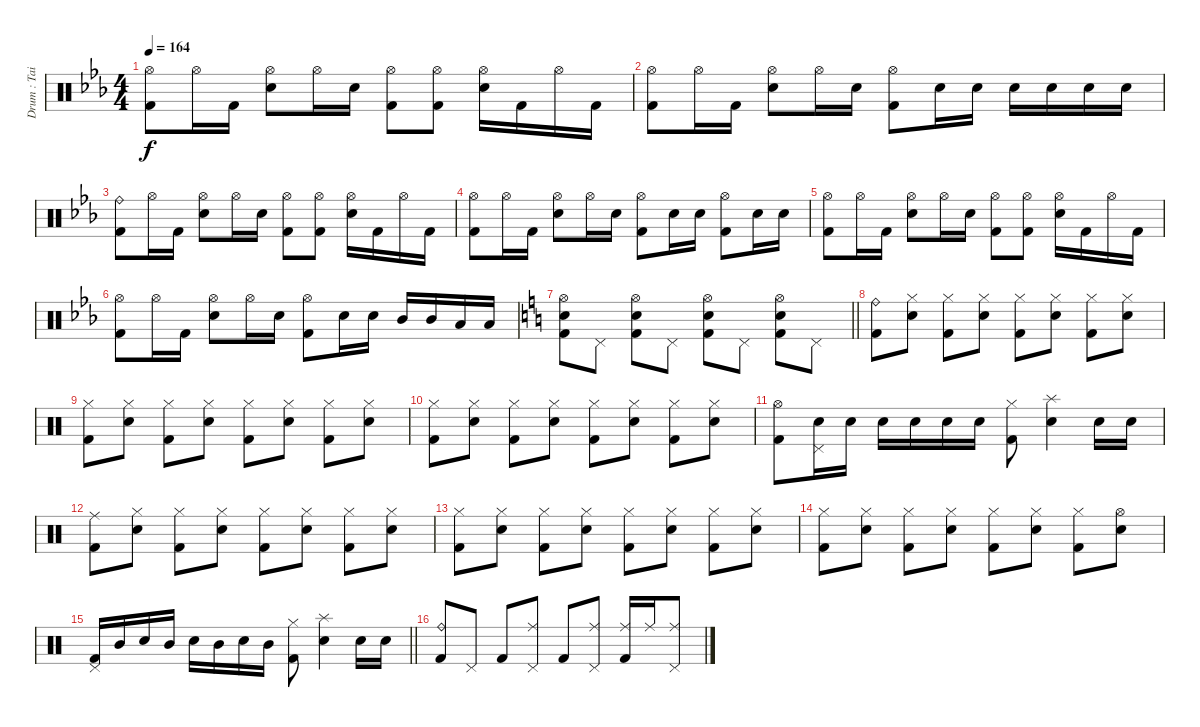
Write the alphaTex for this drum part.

\track ("Drum : Tainaka Ritsu - Chan" "Drum : Tai") {instrument percussion}
\staff {score}
\articulation defaults
\ts (4 4)
\tempo 164
\clef neutral
\ks eb
("Hi-Hat (open)" "Kick (hit) 2").8{dy f} "Hi-Hat (open)".16 "Kick (hit) 2".16 ("Hi-Hat (open)" "Electric Snare (hit)").8 "Hi-Hat (open)".16 "Electric Snare (hit)".16 ("Hi-Hat (open)" "Kick (hit) 2").8 ("Hi-Hat (open)" "Kick (hit) 2").8 ("Hi-Hat (open)" "Electric Snare (hit)").16 "Kick (hit) 2".16 "Hi-Hat (open)".16 "Kick (hit) 2".16 |
("Hi-Hat (open)" "Kick (hit) 2").8 "Hi-Hat (open)".16 "Kick (hit) 2".16 ("Hi-Hat (open)" "Electric Snare (hit)").8 "Hi-Hat (open)".16 "Electric Snare (hit)".16 ("Hi-Hat (open)" "Kick (hit) 2").8 "Electric Snare (hit)".16 "Electric Snare (hit)".16 "Electric Snare (hit)".16 "Electric Snare (hit)".16 "Electric Snare (hit)".16 "Electric Snare (hit)".16 |
("Ride (bell)" "Kick (hit) 2").8 "Hi-Hat (open)".16 "Kick (hit) 2".16 ("Hi-Hat (open)" "Electric Snare (hit)").8 "Hi-Hat (open)".16 "Electric Snare (hit)".16 ("Hi-Hat (open)" "Kick (hit) 2").8 ("Hi-Hat (open)" "Kick (hit) 2").8 ("Hi-Hat (open)" "Electric Snare (hit)").16 "Kick (hit) 2".16 "Hi-Hat (open)".16 "Kick (hit) 2".16 |
("Hi-Hat (open)" "Kick (hit) 2").8 "Hi-Hat (open)".16 "Kick (hit) 2".16 ("Hi-Hat (open)" "Electric Snare (hit)").8 "Hi-Hat (open)".16 "Electric Snare (hit)".16 ("Hi-Hat (open)" "Kick (hit) 2").8 "Electric Snare (hit)".16 "Electric Snare (hit)".16 ("Hi-Hat (open)" "Kick (hit) 2").8 "Electric Snare (hit)".16 "Electric Snare (hit)".16 |
("Hi-Hat (open)" "Kick (hit) 2").8 "Hi-Hat (open)".16 "Kick (hit) 2".16 ("Hi-Hat (open)" "Electric Snare (hit)").8 "Hi-Hat (open)".16 "Electric Snare (hit)".16 ("Hi-Hat (open)" "Kick (hit) 2").8 ("Hi-Hat (open)" "Kick (hit) 2").8 ("Hi-Hat (open)" "Electric Snare (hit)").16 "Kick (hit) 2".16 "Hi-Hat (open)".16 "Kick (hit) 2".16 |
("Hi-Hat (open)" "Kick (hit) 2").8 "Hi-Hat (open)".16 "Kick (hit) 2".16 ("Hi-Hat (open)" "Electric Snare (hit)").8 "Hi-Hat (open)".16 "Electric Snare (hit)".16 ("Hi-Hat (open)" "Kick (hit) 2").8 "Electric Snare (hit)".16 "Electric Snare (hit)".16 "Mid Tom (hit)".16 "Mid Tom (hit)".16 "Low Tom (hit)".16 "Low Tom (hit)".16 |
\barLineRight lightlight
\ks c
("Hi-Hat (open)" "Electric Snare (hit)" "Kick (hit) 2").8 "Pedal Hi-Hat (hit)".8 ("Hi-Hat (open)" "Electric Snare (hit)" "Kick (hit) 2").8 "Pedal Hi-Hat (hit)".8 ("Hi-Hat (open)" "Electric Snare (hit)" "Kick (hit) 2").8 "Pedal Hi-Hat (hit)".8 ("Hi-Hat (open)" "Electric Snare (hit)" "Kick (hit) 2").8 "Pedal Hi-Hat (hit)".8 |
("Ride (bell)" "Kick (hit) 2").8 ("Hi-Hat (closed)" "Electric Snare (hit)").8 ("Hi-Hat (closed)" "Kick (hit) 2").8 ("Hi-Hat (closed)" "Electric Snare (hit)").8 ("Hi-Hat (closed)" "Kick (hit) 2").8 ("Hi-Hat (closed)" "Electric Snare (hit)").8 ("Hi-Hat (closed)" "Kick (hit) 2").8 ("Hi-Hat (closed)" "Electric Snare (hit)").8 |
("Hi-Hat (closed)" "Kick (hit) 2").8 ("Hi-Hat (closed)" "Electric Snare (hit)").8 ("Hi-Hat (closed)" "Kick (hit) 2").8 ("Hi-Hat (closed)" "Electric Snare (hit)").8 ("Hi-Hat (closed)" "Kick (hit) 2").8 ("Hi-Hat (closed)" "Electric Snare (hit)").8 ("Hi-Hat (closed)" "Kick (hit) 2").8 ("Hi-Hat (closed)" "Electric Snare (hit)").8 |
("Hi-Hat (closed)" "Kick (hit) 2").8 ("Hi-Hat (closed)" "Electric Snare (hit)").8 ("Hi-Hat (closed)" "Kick (hit) 2").8 ("Hi-Hat (closed)" "Electric Snare (hit)").8 ("Hi-Hat (closed)" "Kick (hit) 2").8 ("Hi-Hat (closed)" "Electric Snare (hit)").8 ("Hi-Hat (closed)" "Kick (hit) 2").8 ("Hi-Hat (closed)" "Electric Snare (hit)").8 |
("Hi-Hat (open)" "Kick (hit) 2").8 ("Pedal Hi-Hat (hit)" "Electric Snare (hit)").16 "Electric Snare (hit)".16 "Electric Snare (hit)".16 "Electric Snare (hit)".16 "Electric Snare (hit)".16 "Electric Snare (hit)".16 ("Hi-Hat (closed)" "Kick (hit) 2").8 ("Splash (hit)" "Electric Snare (hit)").4 "Electric Snare (hit)".16 "Electric Snare (hit)".16 |
("Ride (middle)" "Kick (hit) 2").8 ("Hi-Hat (closed)" "Electric Snare (hit)").8 ("Hi-Hat (closed)" "Kick (hit) 2").8 ("Hi-Hat (closed)" "Electric Snare (hit)").8 ("Hi-Hat (closed)" "Kick (hit) 2").8 ("Hi-Hat (closed)" "Electric Snare (hit)").8 ("Hi-Hat (closed)" "Kick (hit) 2").8 ("Hi-Hat (closed)" "Electric Snare (hit)").8 |
("Hi-Hat (closed)" "Kick (hit) 2").8 ("Hi-Hat (closed)" "Electric Snare (hit)").8 ("Hi-Hat (closed)" "Kick (hit) 2").8 ("Hi-Hat (closed)" "Electric Snare (hit)").8 ("Hi-Hat (closed)" "Kick (hit) 2").8 ("Hi-Hat (closed)" "Electric Snare (hit)").8 ("Hi-Hat (closed)" "Kick (hit) 2").8 ("Hi-Hat (closed)" "Electric Snare (hit)").8 |
("Hi-Hat (closed)" "Kick (hit) 2").8 ("Hi-Hat (closed)" "Electric Snare (hit)").8 ("Hi-Hat (closed)" "Kick (hit) 2").8 ("Hi-Hat (closed)" "Electric Snare (hit)").8 ("Hi-Hat (closed)" "Kick (hit) 2").8 ("Hi-Hat (closed)" "Electric Snare (hit)").8 ("Hi-Hat (closed)" "Kick (hit) 2").8 ("Hi-Hat (open)" "Electric Snare (hit)").8 |
\barLineRight lightlight
("Pedal Hi-Hat (hit)" "Kick (hit) 2").16 "Mid Tom (hit)".16 "Electric Snare (hit)".16 "Mid Tom (hit)".16 "Electric Snare (hit)".16 "Mid Tom (hit)".16 "Electric Snare (hit)".16 "Mid Tom (hit)".16 ("Hi-Hat (closed)" "Kick (hit) 2").8 ("Splash (hit)" "Electric Snare (hit)").4 "Electric Snare (hit)".16 "Electric Snare (hit)".16 |
("Ride (bell)" "Kick (hit) 2").8 "Pedal Hi-Hat (hit)".8 "Kick (hit) 2".8 ("Ride (middle)" "Pedal Hi-Hat (hit)").8 "Kick (hit) 2".8 ("Ride (middle)" "Pedal Hi-Hat (hit)").8 ("Ride (middle)" "Kick (hit) 2").16 "Ride (middle)".16 ("Ride (middle)" "Pedal Hi-Hat (hit)").8
